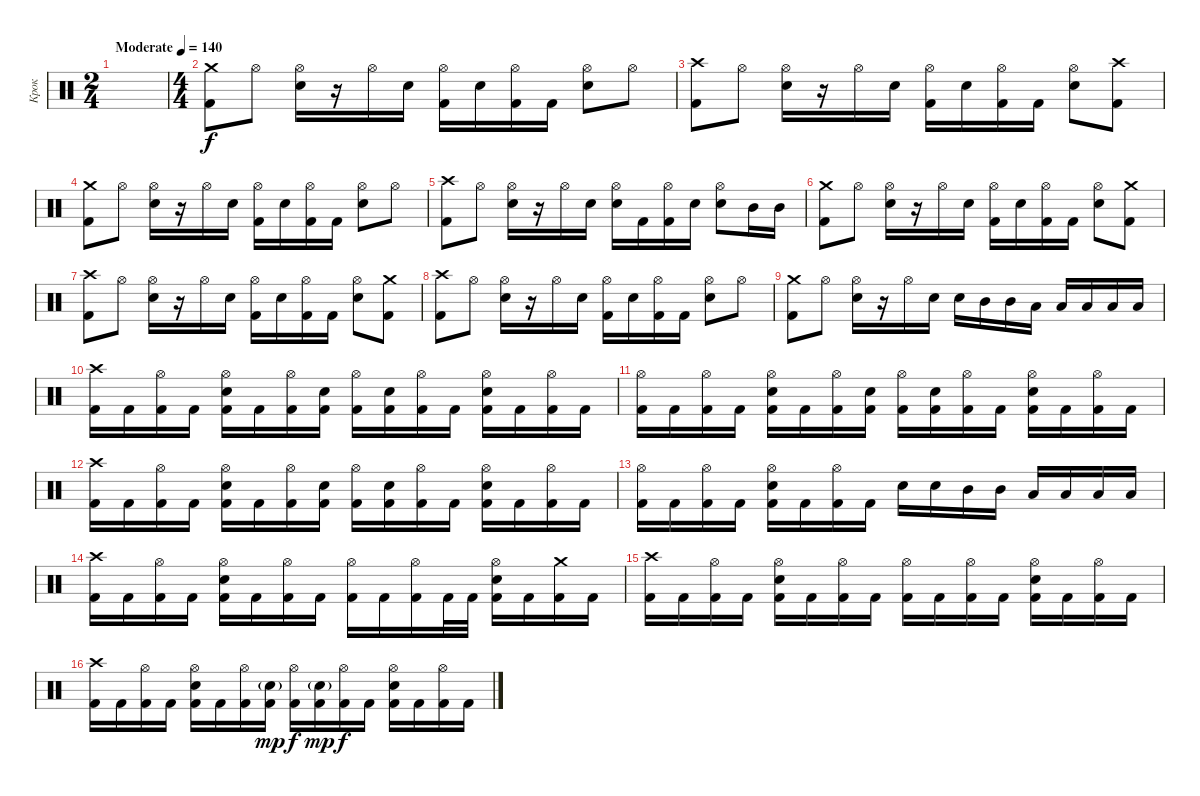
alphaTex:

\track ("Крок" "Крок") {instrument percussion}
\staff {score}
\articulation defaults
\ts (2 4)
\tempo (140 "Moderate")
\clef neutral
\ks c
|
\ts (4 4)
("Kick (hit) 2" "Crash medium (hit)").8 "Hi-Hat (open)".8 ("Electric Snare (hit)" "Hi-Hat (open)").16 r.16 "Hi-Hat (open)".16 "Electric Snare (hit)".16 ("Kick (hit) 2" "Hi-Hat (open)").16 "Electric Snare (hit)".16 ("Kick (hit) 2" "Hi-Hat (open)").16 "Kick (hit) 2".16 ("Electric Snare (hit)" "Hi-Hat (open)").8 "Hi-Hat (open)".8 |
("Kick (hit) 2" "Crash high (hit)").8 "Hi-Hat (open)".8 ("Electric Snare (hit)" "Hi-Hat (open)").16 r.16 "Hi-Hat (open)".16 "Electric Snare (hit)".16 ("Kick (hit) 2" "Hi-Hat (open)").16 "Electric Snare (hit)".16 ("Kick (hit) 2" "Hi-Hat (open)").16 "Kick (hit) 2".16 ("Electric Snare (hit)" "Hi-Hat (open)").8 ("Kick (hit) 2" "Crash high (hit)").8 |
("Kick (hit) 2" "Crash medium (hit)").8 "Hi-Hat (open)".8 ("Electric Snare (hit)" "Hi-Hat (open)").16 r.16 "Hi-Hat (open)".16 "Electric Snare (hit)".16 ("Kick (hit) 2" "Hi-Hat (open)").16 "Electric Snare (hit)".16 ("Kick (hit) 2" "Hi-Hat (open)").16 "Kick (hit) 2".16 ("Electric Snare (hit)" "Hi-Hat (open)").8 "Hi-Hat (open)".8 |
("Kick (hit) 2" "Crash high (hit)").8 "Hi-Hat (open)".8 ("Electric Snare (hit)" "Hi-Hat (open)").16 r.16 "Hi-Hat (open)".16 "Electric Snare (hit)".16 ("Electric Snare (hit)" "Hi-Hat (open)").16 "Kick (hit) 2".16 ("Kick (hit) 2" "Hi-Hat (open)").16 "Electric Snare (hit)".16 ("Electric Snare (hit)" "Hi-Hat (open)").8 "Mid Tom (hit)".16 "Mid Tom (hit)".16 |
("Kick (hit) 2" "Crash medium (hit)").8 "Hi-Hat (open)".8 ("Electric Snare (hit)" "Hi-Hat (open)").16 r.16 "Hi-Hat (open)".16 "Electric Snare (hit)".16 ("Kick (hit) 2" "Hi-Hat (open)").16 "Electric Snare (hit)".16 ("Kick (hit) 2" "Hi-Hat (open)").16 "Kick (hit) 2".16 ("Electric Snare (hit)" "Hi-Hat (open)").8 ("Kick (hit) 2" "Crash medium (hit)").8 |
("Kick (hit) 2" "Crash high (hit)").8 "Hi-Hat (open)".8 ("Electric Snare (hit)" "Hi-Hat (open)").16 r.16 "Hi-Hat (open)".16 "Electric Snare (hit)".16 ("Kick (hit) 2" "Hi-Hat (open)").16 "Electric Snare (hit)".16 ("Kick (hit) 2" "Hi-Hat (open)").16 "Kick (hit) 2".16 ("Electric Snare (hit)" "Hi-Hat (open)").8 ("Kick (hit) 2" "Crash medium (hit)").8 |
("Kick (hit) 2" "Crash high (hit)").8 "Hi-Hat (open)".8 ("Electric Snare (hit)" "Hi-Hat (open)").16 r.16 "Hi-Hat (open)".16 "Electric Snare (hit)".16 ("Kick (hit) 2" "Hi-Hat (open)").16 "Electric Snare (hit)".16 ("Kick (hit) 2" "Hi-Hat (open)").16 "Kick (hit) 2".16 ("Electric Snare (hit)" "Hi-Hat (open)").8 "Hi-Hat (open)".8 |
("Kick (hit) 2" "Crash medium (hit)").8 "Hi-Hat (open)".8 ("Electric Snare (hit)" "Hi-Hat (open)").16 r.16 "Hi-Hat (open)".16 "Electric Snare (hit)".16 "Electric Snare (hit)".16 "Mid Tom (hit)".16 "Mid Tom (hit)".16 "Low Tom (hit)".16 "Low Tom (hit)".16 "Low Tom (hit)".16 "Low Tom (hit)".16 "Low Tom (hit)".16 |
("Crash high (hit)" "Kick (hit) 2").16 "Kick (hit) 2".16 ("Hi-Hat (open)" "Kick (hit) 2").16 "Kick (hit) 2".16 ("Hi-Hat (open)" "Electric Snare (hit)" "Kick (hit) 2").16 "Kick (hit) 2".16 ("Hi-Hat (open)" "Kick (hit) 2").16 ("Electric Snare (hit)" "Kick (hit) 2").16 ("Hi-Hat (open)" "Kick (hit) 2").16 ("Electric Snare (hit)" "Kick (hit) 2").16 ("Hi-Hat (open)" "Kick (hit) 2").16 "Kick (hit) 2".16 ("Hi-Hat (open)" "Electric Snare (hit)" "Kick (hit) 2").16 "Kick (hit) 2".16 ("Hi-Hat (open)" "Kick (hit) 2").16 "Kick (hit) 2".16 |
("Hi-Hat (open)" "Kick (hit) 2").16 "Kick (hit) 2".16 ("Hi-Hat (open)" "Kick (hit) 2").16 "Kick (hit) 2".16 ("Hi-Hat (open)" "Electric Snare (hit)" "Kick (hit) 2").16 "Kick (hit) 2".16 ("Hi-Hat (open)" "Kick (hit) 2").16 ("Electric Snare (hit)" "Kick (hit) 2").16 ("Hi-Hat (open)" "Kick (hit) 2").16 ("Electric Snare (hit)" "Kick (hit) 2").16 ("Hi-Hat (open)" "Kick (hit) 2").16 "Kick (hit) 2".16 ("Hi-Hat (open)" "Electric Snare (hit)" "Kick (hit) 2").16 "Kick (hit) 2".16 ("Hi-Hat (open)" "Kick (hit) 2").16 "Kick (hit) 2".16 |
("Crash high (hit)" "Kick (hit) 2").16 "Kick (hit) 2".16 ("Hi-Hat (open)" "Kick (hit) 2").16 "Kick (hit) 2".16 ("Hi-Hat (open)" "Electric Snare (hit)" "Kick (hit) 2").16 "Kick (hit) 2".16 ("Hi-Hat (open)" "Kick (hit) 2").16 ("Electric Snare (hit)" "Kick (hit) 2").16 ("Hi-Hat (open)" "Kick (hit) 2").16 ("Electric Snare (hit)" "Kick (hit) 2").16 ("Hi-Hat (open)" "Kick (hit) 2").16 "Kick (hit) 2".16 ("Hi-Hat (open)" "Electric Snare (hit)" "Kick (hit) 2").16 "Kick (hit) 2".16 ("Hi-Hat (open)" "Kick (hit) 2").16 "Kick (hit) 2".16 |
("Hi-Hat (open)" "Kick (hit) 2").16 "Kick (hit) 2".16 ("Hi-Hat (open)" "Kick (hit) 2").16 "Kick (hit) 2".16 ("Hi-Hat (open)" "Electric Snare (hit)" "Kick (hit) 2").16 "Kick (hit) 2".16 ("Hi-Hat (open)" "Kick (hit) 2").16 "Kick (hit) 2".16 "Electric Snare (hit)".16 "Electric Snare (hit)".16 "Mid Tom (hit)".16 "Mid Tom (hit)".16 "Low Tom (hit)".16 "Low Tom (hit)".16 "Low Tom (hit)".16 "Low Tom (hit)".16 |
("Crash high (hit)" "Kick (hit) 2").16 "Kick (hit) 2".16 ("Hi-Hat (open)" "Kick (hit) 2").16 "Kick (hit) 2".16 ("Hi-Hat (open)" "Electric Snare (hit)" "Kick (hit) 2").16 "Kick (hit) 2".16 ("Hi-Hat (open)" "Kick (hit) 2").16 "Kick (hit) 2".16 ("Hi-Hat (open)" "Kick (hit) 2").16 "Kick (hit) 2".16 ("Hi-Hat (open)" "Kick (hit) 2").16 "Kick (hit) 2".32 "Kick (hit) 2".32 ("Hi-Hat (open)" "Electric Snare (hit)" "Kick (hit) 2").16 "Kick (hit) 2".16 ("Crash medium (hit)" "Kick (hit) 2").16 "Kick (hit) 2".16 |
("Crash high (hit)" "Kick (hit) 2").16 "Kick (hit) 2".16 ("Hi-Hat (open)" "Kick (hit) 2").16 "Kick (hit) 2".16 ("Hi-Hat (open)" "Electric Snare (hit)" "Kick (hit) 2").16 "Kick (hit) 2".16 ("Hi-Hat (open)" "Kick (hit) 2").16 "Kick (hit) 2".16 ("Hi-Hat (open)" "Kick (hit) 2").16 "Kick (hit) 2".16 ("Hi-Hat (open)" "Kick (hit) 2").16 "Kick (hit) 2".16 ("Hi-Hat (open)" "Electric Snare (hit)" "Kick (hit) 2").16 "Kick (hit) 2".16 ("Hi-Hat (open)" "Kick (hit) 2").16 "Kick (hit) 2".16 |
("Crash high (hit)" "Kick (hit) 2").16 "Kick (hit) 2".16 ("Hi-Hat (open)" "Kick (hit) 2").16 "Kick (hit) 2".16 ("Hi-Hat (open)" "Electric Snare (hit)" "Kick (hit) 2").16 "Kick (hit) 2".16 ("Hi-Hat (open)" "Kick (hit) 2").16 ("Electric Snare (hit)"{g} "Kick (hit) 2").16{dy mp} ("Hi-Hat (open)" "Kick (hit) 2").16{dy f} ("Electric Snare (hit)"{g} "Kick (hit) 2").16{dy mp} ("Hi-Hat (open)" "Kick (hit) 2").16{dy f} "Kick (hit) 2".16 ("Hi-Hat (open)" "Electric Snare (hit)" "Kick (hit) 2").16 "Kick (hit) 2".16 ("Hi-Hat (open)" "Kick (hit) 2").16 "Kick (hit) 2".16
